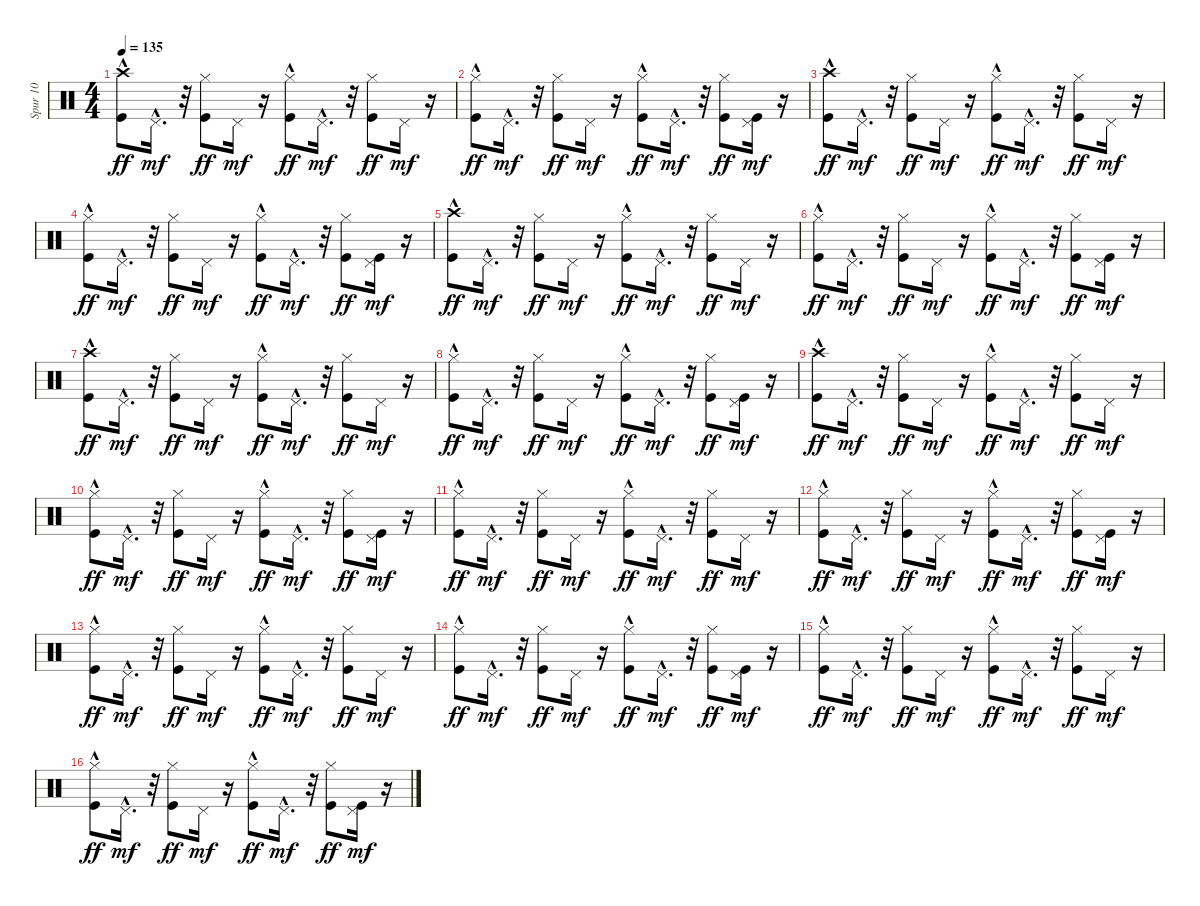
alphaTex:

\track ("Spur 10" "Spur 10") {instrument percussion}
\staff {score}
\articulation defaults
\ts (4 4)
\tempo 135
\clef neutral
\ks c
("Crash high (hit)"{hac} "Kick (hit)").8{dy ff} "Pedal Hi-Hat (hit)"{hac}.16{d dy mf} r.32 ("Hi-Hat (closed)" "Kick (hit)").8{dy ff} "Pedal Hi-Hat (hit)".16{dy mf} r.16 ("Hi-Hat (closed)"{hac} "Kick (hit)").8{dy ff} "Pedal Hi-Hat (hit)"{hac}.16{d dy mf} r.32 ("Hi-Hat (closed)" "Kick (hit)").8{dy ff} "Pedal Hi-Hat (hit)".16{dy mf} r.16 |
("Hi-Hat (closed)"{hac} "Kick (hit)").8{dy ff} "Pedal Hi-Hat (hit)"{hac}.16{d dy mf} r.32 ("Hi-Hat (closed)" "Kick (hit)").8{dy ff} "Pedal Hi-Hat (hit)".16{dy mf} r.16 ("Hi-Hat (closed)"{hac} "Kick (hit)").8{dy ff} "Pedal Hi-Hat (hit)"{hac}.16{d dy mf} r.32 ("Hi-Hat (closed)" "Kick (hit)").8{dy ff} ("Kick (hit)" "Pedal Hi-Hat (hit)").16{dy mf} r.16 |
("Crash high (hit)"{hac} "Kick (hit)").8{dy ff} "Pedal Hi-Hat (hit)"{hac}.16{d dy mf} r.32 ("Hi-Hat (closed)" "Kick (hit)").8{dy ff} "Pedal Hi-Hat (hit)".16{dy mf} r.16 ("Hi-Hat (closed)"{hac} "Kick (hit)").8{dy ff} "Pedal Hi-Hat (hit)"{hac}.16{d dy mf} r.32 ("Hi-Hat (closed)" "Kick (hit)").8{dy ff} "Pedal Hi-Hat (hit)".16{dy mf} r.16 |
("Hi-Hat (closed)"{hac} "Kick (hit)").8{dy ff} "Pedal Hi-Hat (hit)"{hac}.16{d dy mf} r.32 ("Hi-Hat (closed)" "Kick (hit)").8{dy ff} "Pedal Hi-Hat (hit)".16{dy mf} r.16 ("Hi-Hat (closed)"{hac} "Kick (hit)").8{dy ff} "Pedal Hi-Hat (hit)"{hac}.16{d dy mf} r.32 ("Hi-Hat (closed)" "Kick (hit)").8{dy ff} ("Kick (hit)" "Pedal Hi-Hat (hit)").16{dy mf} r.16 |
("Crash high (hit)"{hac} "Kick (hit)").8{dy ff} "Pedal Hi-Hat (hit)"{hac}.16{d dy mf} r.32 ("Hi-Hat (closed)" "Kick (hit)").8{dy ff} "Pedal Hi-Hat (hit)".16{dy mf} r.16 ("Hi-Hat (closed)"{hac} "Kick (hit)").8{dy ff} "Pedal Hi-Hat (hit)"{hac}.16{d dy mf} r.32 ("Hi-Hat (closed)" "Kick (hit)").8{dy ff} "Pedal Hi-Hat (hit)".16{dy mf} r.16 |
("Hi-Hat (closed)"{hac} "Kick (hit)").8{dy ff} "Pedal Hi-Hat (hit)"{hac}.16{d dy mf} r.32 ("Hi-Hat (closed)" "Kick (hit)").8{dy ff} "Pedal Hi-Hat (hit)".16{dy mf} r.16 ("Hi-Hat (closed)"{hac} "Kick (hit)").8{dy ff} "Pedal Hi-Hat (hit)"{hac}.16{d dy mf} r.32 ("Hi-Hat (closed)" "Kick (hit)").8{dy ff} ("Kick (hit)" "Pedal Hi-Hat (hit)").16{dy mf} r.16 |
("Crash high (hit)"{hac} "Kick (hit)").8{dy ff} "Pedal Hi-Hat (hit)"{hac}.16{d dy mf} r.32 ("Hi-Hat (closed)" "Kick (hit)").8{dy ff} "Pedal Hi-Hat (hit)".16{dy mf} r.16 ("Hi-Hat (closed)"{hac} "Kick (hit)").8{dy ff} "Pedal Hi-Hat (hit)"{hac}.16{d dy mf} r.32 ("Hi-Hat (closed)" "Kick (hit)").8{dy ff} "Pedal Hi-Hat (hit)".16{dy mf} r.16 |
("Hi-Hat (closed)"{hac} "Kick (hit)").8{dy ff} "Pedal Hi-Hat (hit)"{hac}.16{d dy mf} r.32 ("Hi-Hat (closed)" "Kick (hit)").8{dy ff} "Pedal Hi-Hat (hit)".16{dy mf} r.16 ("Hi-Hat (closed)"{hac} "Kick (hit)").8{dy ff} "Pedal Hi-Hat (hit)"{hac}.16{d dy mf} r.32 ("Hi-Hat (closed)" "Kick (hit)").8{dy ff} ("Kick (hit)" "Pedal Hi-Hat (hit)").16{dy mf} r.16 |
("Crash high (hit)"{hac} "Kick (hit)").8{dy ff} "Pedal Hi-Hat (hit)"{hac}.16{d dy mf} r.32 ("Hi-Hat (closed)" "Kick (hit)").8{dy ff} "Pedal Hi-Hat (hit)".16{dy mf} r.16 ("Hi-Hat (closed)"{hac} "Kick (hit)").8{dy ff} "Pedal Hi-Hat (hit)"{hac}.16{d dy mf} r.32 ("Hi-Hat (closed)" "Kick (hit)").8{dy ff} "Pedal Hi-Hat (hit)".16{dy mf} r.16 |
("Hi-Hat (closed)"{hac} "Kick (hit)").8{dy ff} "Pedal Hi-Hat (hit)"{hac}.16{d dy mf} r.32 ("Hi-Hat (closed)" "Kick (hit)").8{dy ff} "Pedal Hi-Hat (hit)".16{dy mf} r.16 ("Hi-Hat (closed)"{hac} "Kick (hit)").8{dy ff} "Pedal Hi-Hat (hit)"{hac}.16{d dy mf} r.32 ("Hi-Hat (closed)" "Kick (hit)").8{dy ff} ("Kick (hit)" "Pedal Hi-Hat (hit)").16{dy mf} r.16 |
("Hi-Hat (closed)"{hac} "Kick (hit)").8{dy ff} "Pedal Hi-Hat (hit)"{hac}.16{d dy mf} r.32 ("Hi-Hat (closed)" "Kick (hit)").8{dy ff} "Pedal Hi-Hat (hit)".16{dy mf} r.16 ("Hi-Hat (closed)"{hac} "Kick (hit)").8{dy ff} "Pedal Hi-Hat (hit)"{hac}.16{d dy mf} r.32 ("Hi-Hat (closed)" "Kick (hit)").8{dy ff} "Pedal Hi-Hat (hit)".16{dy mf} r.16 |
("Hi-Hat (closed)"{hac} "Kick (hit)").8{dy ff} "Pedal Hi-Hat (hit)"{hac}.16{d dy mf} r.32 ("Hi-Hat (closed)" "Kick (hit)").8{dy ff} "Pedal Hi-Hat (hit)".16{dy mf} r.16 ("Hi-Hat (closed)"{hac} "Kick (hit)").8{dy ff} "Pedal Hi-Hat (hit)"{hac}.16{d dy mf} r.32 ("Hi-Hat (closed)" "Kick (hit)").8{dy ff} ("Kick (hit)" "Pedal Hi-Hat (hit)").16{dy mf} r.16 |
("Hi-Hat (closed)"{hac} "Kick (hit)").8{dy ff} "Pedal Hi-Hat (hit)"{hac}.16{d dy mf} r.32 ("Hi-Hat (closed)" "Kick (hit)").8{dy ff} "Pedal Hi-Hat (hit)".16{dy mf} r.16 ("Hi-Hat (closed)"{hac} "Kick (hit)").8{dy ff} "Pedal Hi-Hat (hit)"{hac}.16{d dy mf} r.32 ("Hi-Hat (closed)" "Kick (hit)").8{dy ff} "Pedal Hi-Hat (hit)".16{dy mf} r.16 |
("Hi-Hat (closed)"{hac} "Kick (hit)").8{dy ff} "Pedal Hi-Hat (hit)"{hac}.16{d dy mf} r.32 ("Hi-Hat (closed)" "Kick (hit)").8{dy ff} "Pedal Hi-Hat (hit)".16{dy mf} r.16 ("Hi-Hat (closed)"{hac} "Kick (hit)").8{dy ff} "Pedal Hi-Hat (hit)"{hac}.16{d dy mf} r.32 ("Hi-Hat (closed)" "Kick (hit)").8{dy ff} ("Kick (hit)" "Pedal Hi-Hat (hit)").16{dy mf} r.16 |
("Hi-Hat (closed)"{hac} "Kick (hit)").8{dy ff} "Pedal Hi-Hat (hit)"{hac}.16{d dy mf} r.32 ("Hi-Hat (closed)" "Kick (hit)").8{dy ff} "Pedal Hi-Hat (hit)".16{dy mf} r.16 ("Hi-Hat (closed)"{hac} "Kick (hit)").8{dy ff} "Pedal Hi-Hat (hit)"{hac}.16{d dy mf} r.32 ("Hi-Hat (closed)" "Kick (hit)").8{dy ff} "Pedal Hi-Hat (hit)".16{dy mf} r.16 |
("Hi-Hat (closed)"{hac} "Kick (hit)").8{dy ff} "Pedal Hi-Hat (hit)"{hac}.16{d dy mf} r.32 ("Hi-Hat (closed)" "Kick (hit)").8{dy ff} "Pedal Hi-Hat (hit)".16{dy mf} r.16 ("Hi-Hat (closed)"{hac} "Kick (hit)").8{dy ff} "Pedal Hi-Hat (hit)"{hac}.16{d dy mf} r.32 ("Hi-Hat (closed)" "Kick (hit)").8{dy ff} ("Kick (hit)" "Pedal Hi-Hat (hit)").16{dy mf} r.16
